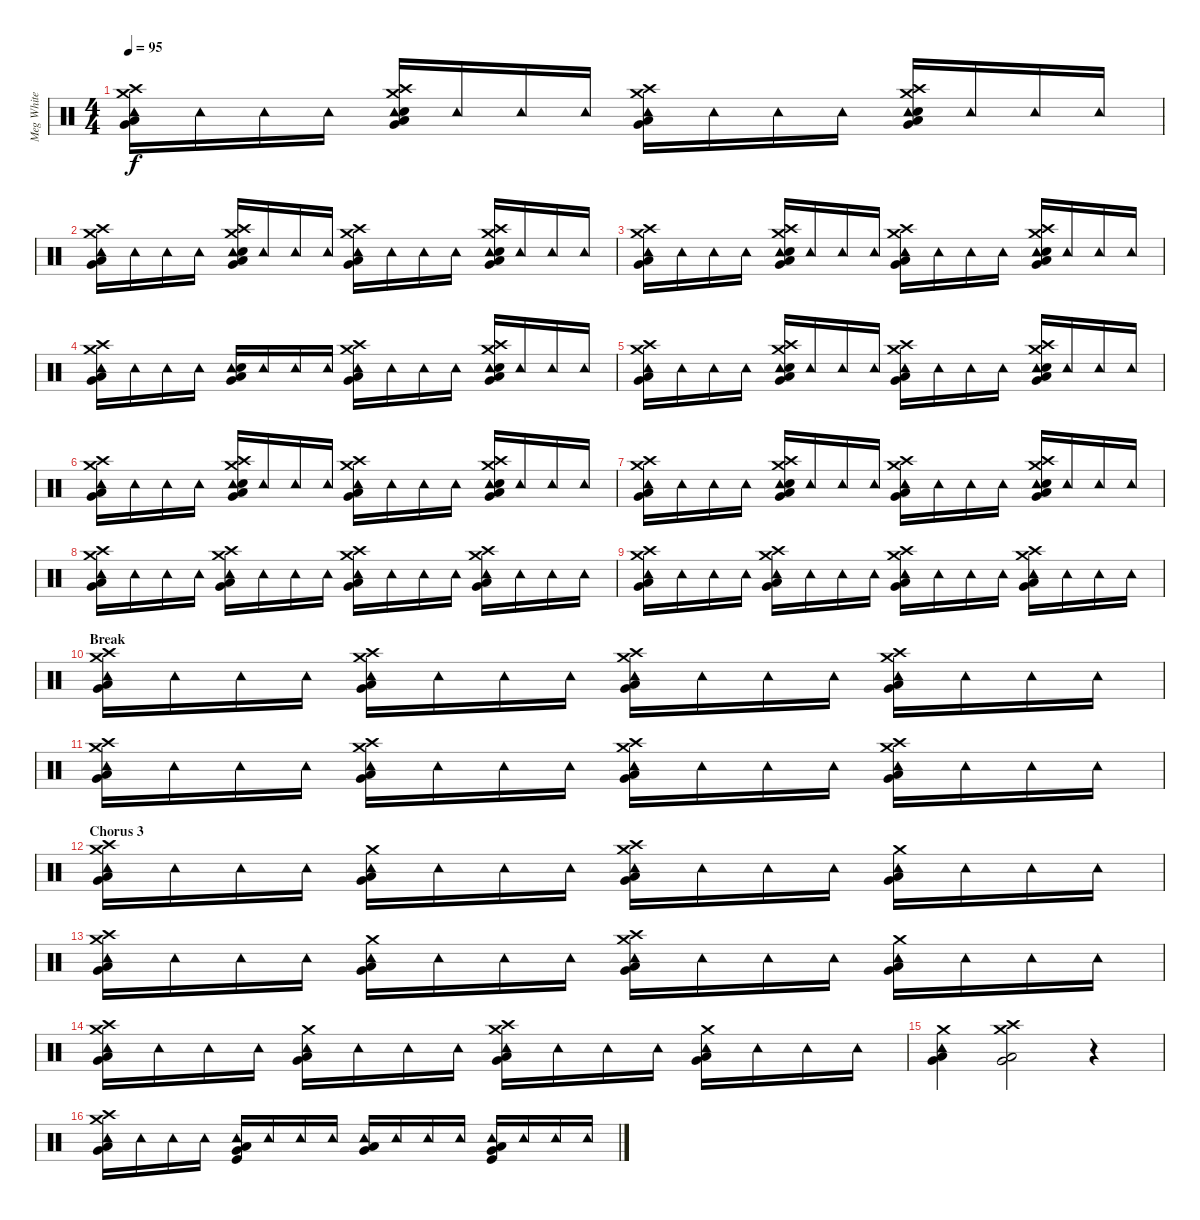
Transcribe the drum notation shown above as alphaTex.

\track ("Meg White" "Meg White") {instrument percussion}
\staff {score}
\articulation defaults
\ts (4 4)
\tempo 95
\clef neutral
\ks c
("Very Low Tom (hit)" "Low Floor Tom (hit)" "Tambourine (hit)" "Crash high (hit)" "Crash medium (hit)").16{dy f} "Tambourine (hit)".16 "Tambourine (hit)".16 "Tambourine (hit)".16 ("Very Low Tom (hit)" "Low Floor Tom (hit)" "Tambourine (hit)" "Electric Snare (hit)" "Crash high (hit)" "Crash medium (hit)").16 "Tambourine (hit)".16 "Tambourine (hit)".16 "Tambourine (hit)".16 ("Very Low Tom (hit)" "Low Floor Tom (hit)" "Tambourine (hit)" "Crash high (hit)" "Crash medium (hit)").16 "Tambourine (hit)".16 "Tambourine (hit)".16 "Tambourine (hit)".16 ("Very Low Tom (hit)" "Low Floor Tom (hit)" "Tambourine (hit)" "Electric Snare (hit)" "Crash high (hit)" "Crash medium (hit)").16 "Tambourine (hit)".16 "Tambourine (hit)".16 "Tambourine (hit)".16 |
("Very Low Tom (hit)" "Low Floor Tom (hit)" "Tambourine (hit)" "Crash high (hit)" "Crash medium (hit)").16 "Tambourine (hit)".16 "Tambourine (hit)".16 "Tambourine (hit)".16 ("Very Low Tom (hit)" "Low Floor Tom (hit)" "Tambourine (hit)" "Electric Snare (hit)" "Crash high (hit)" "Crash medium (hit)").16 "Tambourine (hit)".16 "Tambourine (hit)".16 "Tambourine (hit)".16 ("Very Low Tom (hit)" "Low Floor Tom (hit)" "Tambourine (hit)" "Crash high (hit)" "Crash medium (hit)").16 "Tambourine (hit)".16 "Tambourine (hit)".16 "Tambourine (hit)".16 ("Very Low Tom (hit)" "Low Floor Tom (hit)" "Tambourine (hit)" "Electric Snare (hit)" "Crash high (hit)" "Crash medium (hit)").16 "Tambourine (hit)".16 "Tambourine (hit)".16 "Tambourine (hit)".16 |
("Very Low Tom (hit)" "Low Floor Tom (hit)" "Tambourine (hit)" "Crash high (hit)" "Crash medium (hit)").16 "Tambourine (hit)".16 "Tambourine (hit)".16 "Tambourine (hit)".16 ("Very Low Tom (hit)" "Low Floor Tom (hit)" "Tambourine (hit)" "Electric Snare (hit)" "Crash high (hit)" "Crash medium (hit)").16 "Tambourine (hit)".16 "Tambourine (hit)".16 "Tambourine (hit)".16 ("Very Low Tom (hit)" "Low Floor Tom (hit)" "Tambourine (hit)" "Crash high (hit)" "Crash medium (hit)").16 "Tambourine (hit)".16 "Tambourine (hit)".16 "Tambourine (hit)".16 ("Very Low Tom (hit)" "Low Floor Tom (hit)" "Tambourine (hit)" "Electric Snare (hit)" "Crash high (hit)" "Crash medium (hit)").16 "Tambourine (hit)".16 "Tambourine (hit)".16 "Tambourine (hit)".16 |
("Very Low Tom (hit)" "Low Floor Tom (hit)" "Tambourine (hit)" "Crash high (hit)" "Crash medium (hit)").16 "Tambourine (hit)".16 "Tambourine (hit)".16 "Tambourine (hit)".16 ("Very Low Tom (hit)" "Low Floor Tom (hit)" "Tambourine (hit)" "Electric Snare (hit)").16 "Tambourine (hit)".16 "Tambourine (hit)".16 "Tambourine (hit)".16 ("Very Low Tom (hit)" "Low Floor Tom (hit)" "Tambourine (hit)" "Crash high (hit)" "Crash medium (hit)").16 "Tambourine (hit)".16 "Tambourine (hit)".16 "Tambourine (hit)".16 ("Very Low Tom (hit)" "Low Floor Tom (hit)" "Tambourine (hit)" "Electric Snare (hit)" "Crash high (hit)" "Crash medium (hit)").16 "Tambourine (hit)".16 "Tambourine (hit)".16 "Tambourine (hit)".16 |
("Very Low Tom (hit)" "Low Floor Tom (hit)" "Tambourine (hit)" "Crash high (hit)" "Crash medium (hit)").16 "Tambourine (hit)".16 "Tambourine (hit)".16 "Tambourine (hit)".16 ("Very Low Tom (hit)" "Low Floor Tom (hit)" "Tambourine (hit)" "Electric Snare (hit)" "Crash high (hit)" "Crash medium (hit)").16 "Tambourine (hit)".16 "Tambourine (hit)".16 "Tambourine (hit)".16 ("Very Low Tom (hit)" "Low Floor Tom (hit)" "Tambourine (hit)" "Crash high (hit)" "Crash medium (hit)").16 "Tambourine (hit)".16 "Tambourine (hit)".16 "Tambourine (hit)".16 ("Very Low Tom (hit)" "Low Floor Tom (hit)" "Tambourine (hit)" "Electric Snare (hit)" "Crash high (hit)" "Crash medium (hit)").16 "Tambourine (hit)".16 "Tambourine (hit)".16 "Tambourine (hit)".16 |
("Very Low Tom (hit)" "Low Floor Tom (hit)" "Tambourine (hit)" "Crash high (hit)" "Crash medium (hit)").16 "Tambourine (hit)".16 "Tambourine (hit)".16 "Tambourine (hit)".16 ("Very Low Tom (hit)" "Low Floor Tom (hit)" "Tambourine (hit)" "Electric Snare (hit)" "Crash high (hit)" "Crash medium (hit)").16 "Tambourine (hit)".16 "Tambourine (hit)".16 "Tambourine (hit)".16 ("Very Low Tom (hit)" "Low Floor Tom (hit)" "Tambourine (hit)" "Crash high (hit)" "Crash medium (hit)").16 "Tambourine (hit)".16 "Tambourine (hit)".16 "Tambourine (hit)".16 ("Very Low Tom (hit)" "Low Floor Tom (hit)" "Tambourine (hit)" "Electric Snare (hit)" "Crash high (hit)" "Crash medium (hit)").16 "Tambourine (hit)".16 "Tambourine (hit)".16 "Tambourine (hit)".16 |
("Very Low Tom (hit)" "Low Floor Tom (hit)" "Tambourine (hit)" "Crash high (hit)" "Crash medium (hit)").16 "Tambourine (hit)".16 "Tambourine (hit)".16 "Tambourine (hit)".16 ("Very Low Tom (hit)" "Low Floor Tom (hit)" "Tambourine (hit)" "Electric Snare (hit)" "Crash high (hit)" "Crash medium (hit)").16 "Tambourine (hit)".16 "Tambourine (hit)".16 "Tambourine (hit)".16 ("Very Low Tom (hit)" "Low Floor Tom (hit)" "Tambourine (hit)" "Crash high (hit)" "Crash medium (hit)").16 "Tambourine (hit)".16 "Tambourine (hit)".16 "Tambourine (hit)".16 ("Very Low Tom (hit)" "Low Floor Tom (hit)" "Tambourine (hit)" "Electric Snare (hit)" "Crash high (hit)" "Crash medium (hit)").16 "Tambourine (hit)".16 "Tambourine (hit)".16 "Tambourine (hit)".16 |
("Very Low Tom (hit)" "Low Floor Tom (hit)" "Tambourine (hit)" "Crash high (hit)" "Crash medium (hit)").16 "Tambourine (hit)".16 "Tambourine (hit)".16 "Tambourine (hit)".16 ("Very Low Tom (hit)" "Low Floor Tom (hit)" "Tambourine (hit)" "Crash high (hit)" "Crash medium (hit)").16 "Tambourine (hit)".16 "Tambourine (hit)".16 "Tambourine (hit)".16 ("Very Low Tom (hit)" "Low Floor Tom (hit)" "Tambourine (hit)" "Crash high (hit)" "Crash medium (hit)").16 "Tambourine (hit)".16 "Tambourine (hit)".16 "Tambourine (hit)".16 ("Very Low Tom (hit)" "Low Floor Tom (hit)" "Tambourine (hit)" "Crash high (hit)" "Crash medium (hit)").16 "Tambourine (hit)".16 "Tambourine (hit)".16 "Tambourine (hit)".16 |
("Very Low Tom (hit)" "Low Floor Tom (hit)" "Tambourine (hit)" "Crash high (hit)" "Crash medium (hit)").16 "Tambourine (hit)".16 "Tambourine (hit)".16 "Tambourine (hit)".16 ("Very Low Tom (hit)" "Low Floor Tom (hit)" "Tambourine (hit)" "Crash high (hit)" "Crash medium (hit)").16 "Tambourine (hit)".16 "Tambourine (hit)".16 "Tambourine (hit)".16 ("Very Low Tom (hit)" "Low Floor Tom (hit)" "Tambourine (hit)" "Crash high (hit)" "Crash medium (hit)").16 "Tambourine (hit)".16 "Tambourine (hit)".16 "Tambourine (hit)".16 ("Very Low Tom (hit)" "Low Floor Tom (hit)" "Tambourine (hit)" "Crash high (hit)" "Crash medium (hit)").16 "Tambourine (hit)".16 "Tambourine (hit)".16 "Tambourine (hit)".16 |
\section ("" "Break")
("Very Low Tom (hit)" "Low Floor Tom (hit)" "Tambourine (hit)" "Crash high (hit)" "Crash medium (hit)").16 "Tambourine (hit)".16 "Tambourine (hit)".16 "Tambourine (hit)".16 ("Very Low Tom (hit)" "Low Floor Tom (hit)" "Tambourine (hit)" "Crash high (hit)" "Crash medium (hit)").16 "Tambourine (hit)".16 "Tambourine (hit)".16 "Tambourine (hit)".16 ("Very Low Tom (hit)" "Low Floor Tom (hit)" "Tambourine (hit)" "Crash high (hit)" "Crash medium (hit)").16 "Tambourine (hit)".16 "Tambourine (hit)".16 "Tambourine (hit)".16 ("Very Low Tom (hit)" "Low Floor Tom (hit)" "Tambourine (hit)" "Crash high (hit)" "Crash medium (hit)").16 "Tambourine (hit)".16 "Tambourine (hit)".16 "Tambourine (hit)".16 |
("Very Low Tom (hit)" "Low Floor Tom (hit)" "Tambourine (hit)" "Crash high (hit)" "Crash medium (hit)").16 "Tambourine (hit)".16 "Tambourine (hit)".16 "Tambourine (hit)".16 ("Very Low Tom (hit)" "Low Floor Tom (hit)" "Tambourine (hit)" "Crash high (hit)" "Crash medium (hit)").16 "Tambourine (hit)".16 "Tambourine (hit)".16 "Tambourine (hit)".16 ("Very Low Tom (hit)" "Low Floor Tom (hit)" "Tambourine (hit)" "Crash high (hit)" "Crash medium (hit)").16 "Tambourine (hit)".16 "Tambourine (hit)".16 "Tambourine (hit)".16 ("Very Low Tom (hit)" "Low Floor Tom (hit)" "Tambourine (hit)" "Crash high (hit)" "Crash medium (hit)").16 "Tambourine (hit)".16 "Tambourine (hit)".16 "Tambourine (hit)".16 |
\section ("" "Chorus 3")
("Very Low Tom (hit)" "Low Floor Tom (hit)" "Tambourine (hit)" "Crash high (hit)" "Crash medium (hit)").16 "Tambourine (hit)".16 "Tambourine (hit)".16 "Tambourine (hit)".16 ("Very Low Tom (hit)" "Low Floor Tom (hit)" "Tambourine (hit)" "Crash medium (hit)").16 "Tambourine (hit)".16 "Tambourine (hit)".16 "Tambourine (hit)".16 ("Very Low Tom (hit)" "Low Floor Tom (hit)" "Tambourine (hit)" "Crash high (hit)" "Crash medium (hit)").16 "Tambourine (hit)".16 "Tambourine (hit)".16 "Tambourine (hit)".16 ("Very Low Tom (hit)" "Low Floor Tom (hit)" "Tambourine (hit)" "Crash medium (hit)").16 "Tambourine (hit)".16 "Tambourine (hit)".16 "Tambourine (hit)".16 |
("Very Low Tom (hit)" "Low Floor Tom (hit)" "Tambourine (hit)" "Crash high (hit)" "Crash medium (hit)").16 "Tambourine (hit)".16 "Tambourine (hit)".16 "Tambourine (hit)".16 ("Very Low Tom (hit)" "Low Floor Tom (hit)" "Tambourine (hit)" "Crash medium (hit)").16 "Tambourine (hit)".16 "Tambourine (hit)".16 "Tambourine (hit)".16 ("Very Low Tom (hit)" "Low Floor Tom (hit)" "Tambourine (hit)" "Crash high (hit)" "Crash medium (hit)").16 "Tambourine (hit)".16 "Tambourine (hit)".16 "Tambourine (hit)".16 ("Very Low Tom (hit)" "Low Floor Tom (hit)" "Tambourine (hit)" "Crash medium (hit)").16 "Tambourine (hit)".16 "Tambourine (hit)".16 "Tambourine (hit)".16 |
("Very Low Tom (hit)" "Low Floor Tom (hit)" "Tambourine (hit)" "Crash high (hit)" "Crash medium (hit)").16 "Tambourine (hit)".16 "Tambourine (hit)".16 "Tambourine (hit)".16 ("Very Low Tom (hit)" "Low Floor Tom (hit)" "Tambourine (hit)" "Crash medium (hit)").16 "Tambourine (hit)".16 "Tambourine (hit)".16 "Tambourine (hit)".16 ("Very Low Tom (hit)" "Low Floor Tom (hit)" "Tambourine (hit)" "Crash high (hit)" "Crash medium (hit)").16 "Tambourine (hit)".16 "Tambourine (hit)".16 "Tambourine (hit)".16 ("Very Low Tom (hit)" "Low Floor Tom (hit)" "Tambourine (hit)" "Crash medium (hit)").16 "Tambourine (hit)".16 "Tambourine (hit)".16 "Tambourine (hit)".16 |
("Very Low Tom (hit)" "Low Floor Tom (hit)" "Tambourine (hit)" "Crash medium (hit)").4 ("Very Low Tom (hit)" "Low Floor Tom (hit)" "Crash high (hit)" "Crash medium (hit)").2 r.4 |
("Very Low Tom (hit)" "Low Floor Tom (hit)" "Tambourine (hit)" "Crash high (hit)" "Crash medium (hit)").16 "Tambourine (hit)".16 "Tambourine (hit)".16 "Tambourine (hit)".16 ("Very Low Tom (hit)" "Low Floor Tom (hit)" "Tambourine (hit)" "Kick (hit)").16 "Tambourine (hit)".16 "Tambourine (hit)".16 "Tambourine (hit)".16 ("Very Low Tom (hit)" "Low Floor Tom (hit)" "Tambourine (hit)").16 "Tambourine (hit)".16 "Tambourine (hit)".16 "Tambourine (hit)".16 ("Very Low Tom (hit)" "Low Floor Tom (hit)" "Tambourine (hit)" "Kick (hit)").16 "Tambourine (hit)".16 "Tambourine (hit)".16 "Tambourine (hit)".16
